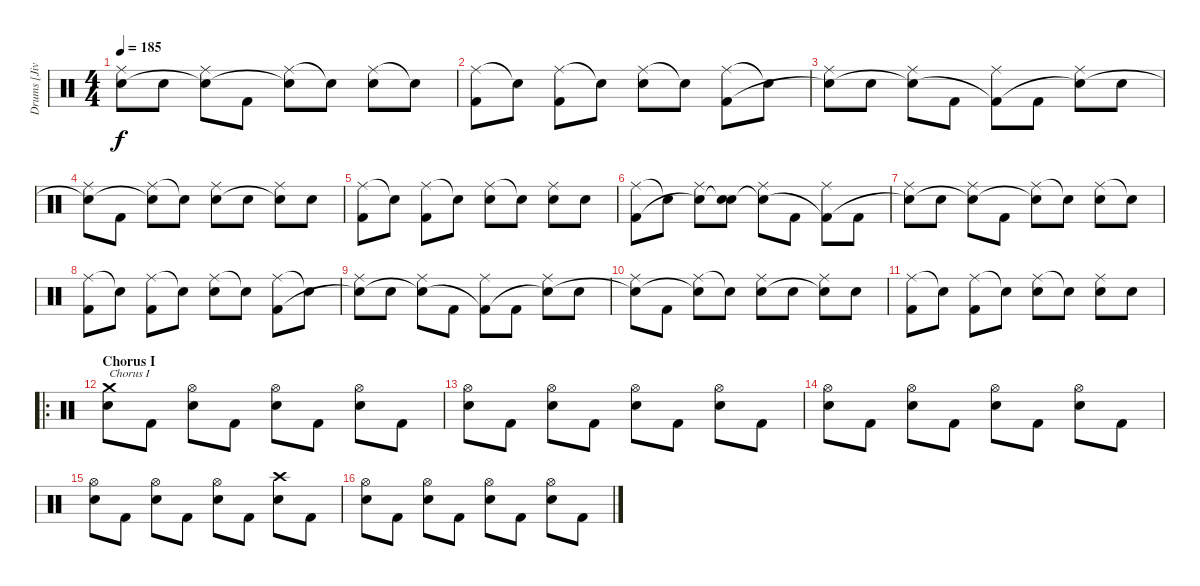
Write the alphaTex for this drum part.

\track ("Drums [Jivarp]" "Drums [Jiv") {instrument percussion}
\staff {score}
\articulation defaults
\ts (4 4)
\tempo 185
\clef neutral
\ks c
("Ride (middle)" "Snare (hit)"{t}).8{dy f} "Electric Snare (hit)".8 ("Ride (middle)" "Snare (hit)"{t}).8 "Kick (hit) 2".8 ("Ride (middle)" "Snare (hit)"{t}).8 "Snare (hit)"{t}.8 ("Ride (middle)" "Electric Snare (hit)").8 "Snare (hit)"{t}.8 |
("Ride (middle)" "Kick (hit) 2").8 "Snare (hit)"{t}.8 ("Ride (middle)" "Kick (hit) 2").8 "Snare (hit)"{t}.8 ("Ride (middle)" "Electric Snare (hit)").8 "Snare (hit)"{t}.8 ("Ride (middle)" "Kick (hit) 2").8 "Snare (hit)"{t}.8 |
("Ride (middle)" "Snare (hit)"{t}).8 "Electric Snare (hit)".8 ("Ride (middle)" "Snare (hit)"{t}).8 "Kick (hit) 2".8 ("Ride (middle)" "Kick (hit) 2"{t}).8 "Kick (hit) 2".8 ("Ride (middle)" "Snare (hit)"{t}).8 "Electric Snare (hit)".8 |
("Ride (middle)" "Snare (hit)"{t}).8 "Kick (hit) 2".8 ("Ride (middle)" "Snare (hit)"{t}).8 "Snare (hit)"{t}.8 ("Ride (middle)" "Electric Snare (hit)").8 "Electric Snare (hit)".8 ("Ride (middle)" "Snare (hit)"{t}).8 "Electric Snare (hit)".8 |
("Ride (middle)" "Kick (hit) 2").8 "Snare (hit)"{t}.8 ("Ride (middle)" "Kick (hit) 2").8 "Snare (hit)"{t}.8 ("Ride (middle)" "Electric Snare (hit)").8 "Snare (hit)"{t}.8 ("Ride (middle)" "Electric Snare (hit)").8 "Electric Snare (hit)".8 |
("Ride (middle)" "Kick (hit) 2").8 "Snare (hit)"{t}.8 ("Ride (middle)" "Snare (hit)"{t}).8 ("Electric Snare (hit)" "Snare (hit)"{t}).8 ("Ride (middle)" "Snare (hit)"{t}).8 "Kick (hit) 2".8 ("Ride (middle)" "Kick (hit) 2"{t}).8 "Kick (hit) 2".8 |
("Ride (middle)" "Snare (hit)"{t}).8 "Electric Snare (hit)".8 ("Ride (middle)" "Snare (hit)"{t}).8 "Kick (hit) 2".8 ("Ride (middle)" "Snare (hit)"{t}).8 "Snare (hit)"{t}.8 ("Ride (middle)" "Electric Snare (hit)").8 "Snare (hit)"{t}.8 |
("Ride (middle)" "Kick (hit) 2").8 "Snare (hit)"{t}.8 ("Ride (middle)" "Kick (hit) 2").8 "Snare (hit)"{t}.8 ("Ride (middle)" "Electric Snare (hit)").8 "Snare (hit)"{t}.8 ("Ride (middle)" "Kick (hit) 2").8 "Snare (hit)"{t}.8 |
("Ride (middle)" "Snare (hit)"{t}).8 "Electric Snare (hit)".8 ("Ride (middle)" "Snare (hit)"{t}).8 "Kick (hit) 2".8 ("Ride (middle)" "Kick (hit) 2"{t}).8 "Kick (hit) 2".8 ("Ride (middle)" "Snare (hit)"{t}).8 "Electric Snare (hit)".8 |
("Ride (middle)" "Snare (hit)"{t}).8 "Kick (hit) 2".8 ("Ride (middle)" "Snare (hit)"{t}).8 "Snare (hit)"{t}.8 ("Ride (middle)" "Electric Snare (hit)").8 "Electric Snare (hit)".8 ("Ride (middle)" "Snare (hit)"{t}).8 "Electric Snare (hit)".8 |
("Ride (middle)" "Kick (hit) 2").8 "Snare (hit)"{t}.8 ("Ride (middle)" "Kick (hit) 2").8 "Snare (hit)"{t}.8 ("Ride (middle)" "Electric Snare (hit)").8 "Snare (hit)"{t}.8 ("Ride (middle)" "Electric Snare (hit)").8 "Electric Snare (hit)".8 |
\ro
\section ("" "Chorus I")
("Crash medium (hit)" "Electric Snare (hit)").8{txt "Chorus I"} "Kick (hit) 2".8 ("Hi-Hat (open)" "Electric Snare (hit)").8 "Kick (hit) 2".8 ("Hi-Hat (open)" "Electric Snare (hit)").8 "Kick (hit) 2".8 ("Hi-Hat (open)" "Electric Snare (hit)").8 "Kick (hit) 2".8 |
("Hi-Hat (open)" "Electric Snare (hit)").8 "Kick (hit) 2".8 ("Hi-Hat (open)" "Electric Snare (hit)").8 "Kick (hit) 2".8 ("Hi-Hat (open)" "Electric Snare (hit)").8 "Kick (hit) 2".8 ("Hi-Hat (open)" "Electric Snare (hit)").8 "Kick (hit) 2".8 |
("Hi-Hat (open)" "Electric Snare (hit)").8 "Kick (hit) 2".8 ("Hi-Hat (open)" "Electric Snare (hit)").8 "Kick (hit) 2".8 ("Hi-Hat (open)" "Electric Snare (hit)").8 "Kick (hit) 2".8 ("Hi-Hat (open)" "Electric Snare (hit)").8 "Kick (hit) 2".8 |
("Hi-Hat (open)" "Electric Snare (hit)").8 "Kick (hit) 2".8 ("Hi-Hat (open)" "Electric Snare (hit)").8 "Kick (hit) 2".8 ("Hi-Hat (open)" "Electric Snare (hit)").8 "Kick (hit) 2".8 ("Crash high (hit)" "Electric Snare (hit)").8 "Kick (hit) 2".8 |
("Hi-Hat (open)" "Electric Snare (hit)").8 "Kick (hit) 2".8 ("Hi-Hat (open)" "Electric Snare (hit)").8 "Kick (hit) 2".8 ("Hi-Hat (open)" "Electric Snare (hit)").8 "Kick (hit) 2".8 ("Hi-Hat (open)" "Electric Snare (hit)").8 "Kick (hit) 2".8
